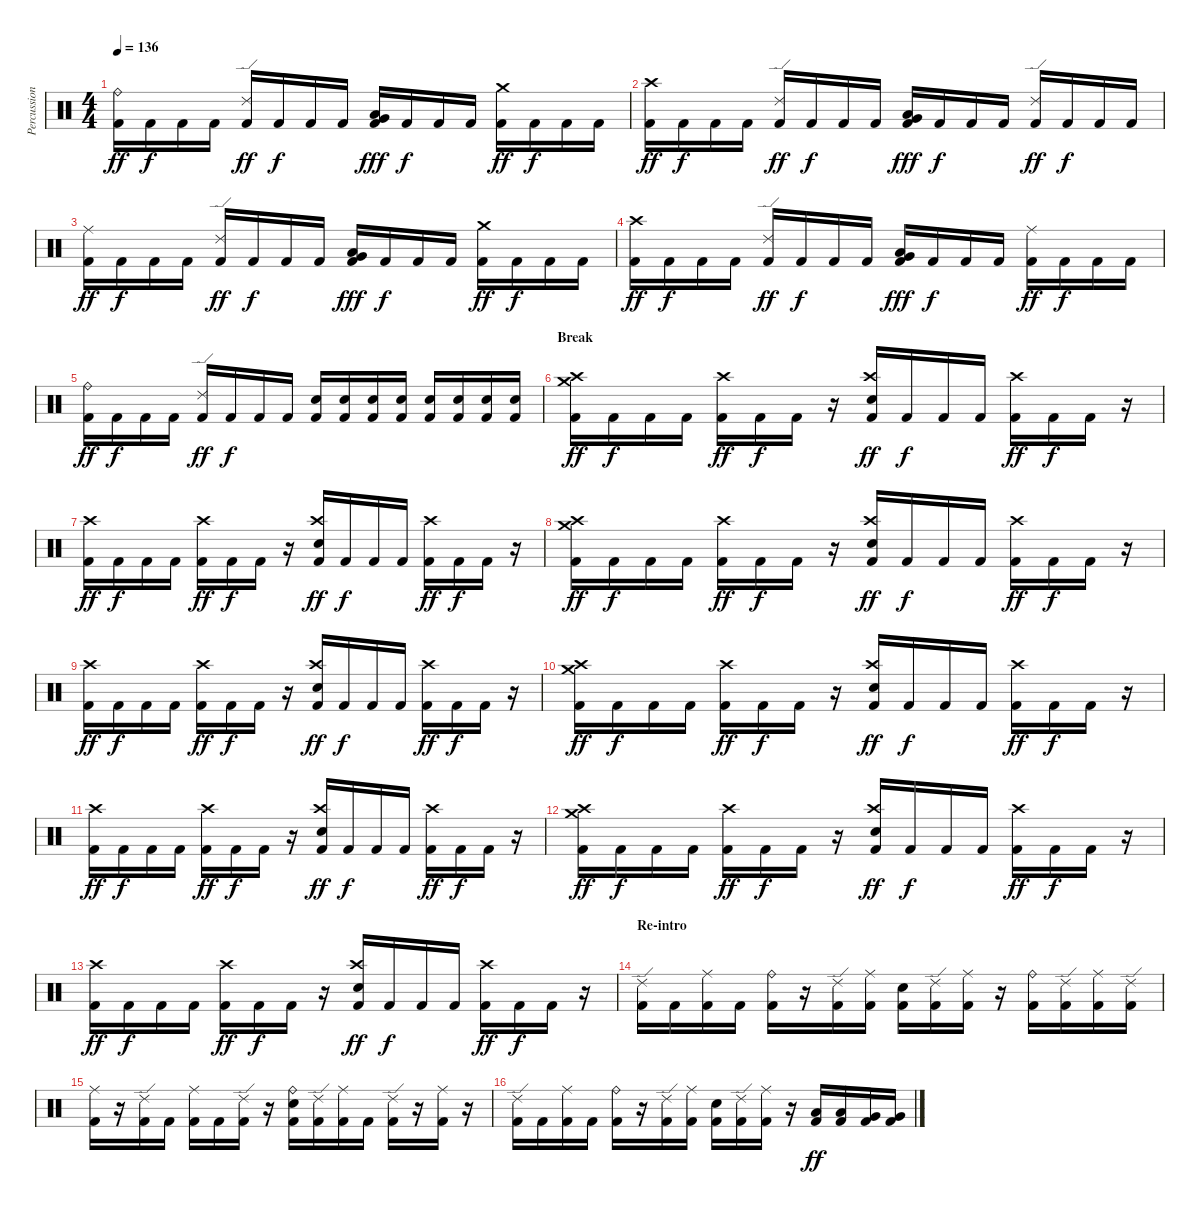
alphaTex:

\track ("Percussions" "Percussion") {instrument percussion}
\staff {score}
\articulation defaults
\ts (4 4)
\tempo 136
\clef neutral
\ks c
("Ride (bell)" "Kick (hit) 2").16{dy ff} "Kick (hit) 2".16{dy f} "Kick (hit) 2".16 "Kick (hit) 2".16 ("Ride (edge) 2" "Kick (hit) 2").16{dy ff} "Kick (hit) 2".16{dy f} "Kick (hit) 2".16 "Kick (hit) 2".16 ("Low Tom (hit)" "Very Low Tom (hit)" "Kick (hit) 2").16{dy fff} "Kick (hit) 2".16{dy f} "Kick (hit) 2".16 "Kick (hit) 2".16 ("Crash medium (hit)" "Kick (hit) 2").16{dy ff} "Kick (hit) 2".16{dy f} "Kick (hit) 2".16 "Kick (hit) 2".16 |
("Crash high (hit)" "Kick (hit) 2").16{dy ff} "Kick (hit) 2".16{dy f} "Kick (hit) 2".16 "Kick (hit) 2".16 ("Ride (edge) 2" "Kick (hit) 2").16{dy ff} "Kick (hit) 2".16{dy f} "Kick (hit) 2".16 "Kick (hit) 2".16 ("Low Tom (hit)" "Very Low Tom (hit)" "Kick (hit) 2").16{dy fff} "Kick (hit) 2".16{dy f} "Kick (hit) 2".16 "Kick (hit) 2".16 ("Ride (edge) 2" "Kick (hit) 2").16{dy ff} "Kick (hit) 2".16{dy f} "Kick (hit) 2".16 "Kick (hit) 2".16 |
("Ride (middle)" "Kick (hit) 2").16{dy ff} "Kick (hit) 2".16{dy f} "Kick (hit) 2".16 "Kick (hit) 2".16 ("Ride (edge) 2" "Kick (hit) 2").16{dy ff} "Kick (hit) 2".16{dy f} "Kick (hit) 2".16 "Kick (hit) 2".16 ("Low Tom (hit)" "Very Low Tom (hit)" "Kick (hit) 2").16{dy fff} "Kick (hit) 2".16{dy f} "Kick (hit) 2".16 "Kick (hit) 2".16 ("Crash medium (hit)" "Kick (hit) 2").16{dy ff} "Kick (hit) 2".16{dy f} "Kick (hit) 2".16 "Kick (hit) 2".16 |
("Crash high (hit)" "Kick (hit) 2").16{dy ff} "Kick (hit) 2".16{dy f} "Kick (hit) 2".16 "Kick (hit) 2".16 ("Ride (edge) 2" "Kick (hit) 2").16{dy ff} "Kick (hit) 2".16{dy f} "Kick (hit) 2".16 "Kick (hit) 2".16 ("Low Tom (hit)" "Very Low Tom (hit)" "Kick (hit) 2").16{dy fff} "Kick (hit) 2".16{dy f} "Kick (hit) 2".16 "Kick (hit) 2".16 ("Ride (middle)" "Kick (hit) 2").16{dy ff} "Kick (hit) 2".16{dy f} "Kick (hit) 2".16 "Kick (hit) 2".16 |
("Ride (bell)" "Kick (hit) 2").16{dy ff} "Kick (hit) 2".16{dy f} "Kick (hit) 2".16 "Kick (hit) 2".16 ("Ride (edge) 2" "Kick (hit) 2").16{dy ff} "Kick (hit) 2".16{dy f} "Kick (hit) 2".16 "Kick (hit) 2".16 ("Electric Snare (hit)" "Kick (hit) 2").16 ("Electric Snare (hit)" "Kick (hit) 2").16 ("Electric Snare (hit)" "Kick (hit) 2").16 ("Electric Snare (hit)" "Kick (hit) 2").16 ("Electric Snare (hit)" "Kick (hit) 2").16 ("Electric Snare (hit)" "Kick (hit) 2").16 ("Electric Snare (hit)" "Kick (hit) 2").16 ("Electric Snare (hit)" "Kick (hit) 2").16 |
\section ("" "Break")
("Crash medium (hit)" "Crash high (hit)" "Kick (hit) 2").16{dy ff} "Kick (hit) 2".16{dy f} "Kick (hit) 2".16 "Kick (hit) 2".16 ("Crash high (hit)" "Kick (hit) 2").16{dy ff} "Kick (hit) 2".16{dy f} "Kick (hit) 2".16 r.16 ("Crash high (hit)" "Electric Snare (hit)" "Kick (hit) 2").16{dy ff} "Kick (hit) 2".16{dy f} "Kick (hit) 2".16 "Kick (hit) 2".16 ("Crash high (hit)" "Kick (hit) 2").16{dy ff} "Kick (hit) 2".16{dy f} "Kick (hit) 2".16 r.16 |
("Crash high (hit)" "Kick (hit) 2").16{dy ff} "Kick (hit) 2".16{dy f} "Kick (hit) 2".16 "Kick (hit) 2".16 ("Crash high (hit)" "Kick (hit) 2").16{dy ff} "Kick (hit) 2".16{dy f} "Kick (hit) 2".16 r.16 ("Crash high (hit)" "Electric Snare (hit)" "Kick (hit) 2").16{dy ff} "Kick (hit) 2".16{dy f} "Kick (hit) 2".16 "Kick (hit) 2".16 ("Crash high (hit)" "Kick (hit) 2").16{dy ff} "Kick (hit) 2".16{dy f} "Kick (hit) 2".16 r.16 |
("Crash medium (hit)" "Crash high (hit)" "Kick (hit) 2").16{dy ff} "Kick (hit) 2".16{dy f} "Kick (hit) 2".16 "Kick (hit) 2".16 ("Crash high (hit)" "Kick (hit) 2").16{dy ff} "Kick (hit) 2".16{dy f} "Kick (hit) 2".16 r.16 ("Crash high (hit)" "Electric Snare (hit)" "Kick (hit) 2").16{dy ff} "Kick (hit) 2".16{dy f} "Kick (hit) 2".16 "Kick (hit) 2".16 ("Crash high (hit)" "Kick (hit) 2").16{dy ff} "Kick (hit) 2".16{dy f} "Kick (hit) 2".16 r.16 |
("Crash high (hit)" "Kick (hit) 2").16{dy ff} "Kick (hit) 2".16{dy f} "Kick (hit) 2".16 "Kick (hit) 2".16 ("Crash high (hit)" "Kick (hit) 2").16{dy ff} "Kick (hit) 2".16{dy f} "Kick (hit) 2".16 r.16 ("Crash high (hit)" "Electric Snare (hit)" "Kick (hit) 2").16{dy ff} "Kick (hit) 2".16{dy f} "Kick (hit) 2".16 "Kick (hit) 2".16 ("Crash high (hit)" "Kick (hit) 2").16{dy ff} "Kick (hit) 2".16{dy f} "Kick (hit) 2".16 r.16 |
("Crash medium (hit)" "Crash high (hit)" "Kick (hit) 2").16{dy ff} "Kick (hit) 2".16{dy f} "Kick (hit) 2".16 "Kick (hit) 2".16 ("Crash high (hit)" "Kick (hit) 2").16{dy ff} "Kick (hit) 2".16{dy f} "Kick (hit) 2".16 r.16 ("Crash high (hit)" "Electric Snare (hit)" "Kick (hit) 2").16{dy ff} "Kick (hit) 2".16{dy f} "Kick (hit) 2".16 "Kick (hit) 2".16 ("Crash high (hit)" "Kick (hit) 2").16{dy ff} "Kick (hit) 2".16{dy f} "Kick (hit) 2".16 r.16 |
("Crash high (hit)" "Kick (hit) 2").16{dy ff} "Kick (hit) 2".16{dy f} "Kick (hit) 2".16 "Kick (hit) 2".16 ("Crash high (hit)" "Kick (hit) 2").16{dy ff} "Kick (hit) 2".16{dy f} "Kick (hit) 2".16 r.16 ("Crash high (hit)" "Electric Snare (hit)" "Kick (hit) 2").16{dy ff} "Kick (hit) 2".16{dy f} "Kick (hit) 2".16 "Kick (hit) 2".16 ("Crash high (hit)" "Kick (hit) 2").16{dy ff} "Kick (hit) 2".16{dy f} "Kick (hit) 2".16 r.16 |
("Crash medium (hit)" "Crash high (hit)" "Kick (hit) 2").16{dy ff} "Kick (hit) 2".16{dy f} "Kick (hit) 2".16 "Kick (hit) 2".16 ("Crash high (hit)" "Kick (hit) 2").16{dy ff} "Kick (hit) 2".16{dy f} "Kick (hit) 2".16 r.16 ("Crash high (hit)" "Electric Snare (hit)" "Kick (hit) 2").16{dy ff} "Kick (hit) 2".16{dy f} "Kick (hit) 2".16 "Kick (hit) 2".16 ("Crash high (hit)" "Kick (hit) 2").16{dy ff} "Kick (hit) 2".16{dy f} "Kick (hit) 2".16 r.16 |
("Crash high (hit)" "Kick (hit) 2").16{dy ff} "Kick (hit) 2".16{dy f} "Kick (hit) 2".16 "Kick (hit) 2".16 ("Crash high (hit)" "Kick (hit) 2").16{dy ff} "Kick (hit) 2".16{dy f} "Kick (hit) 2".16 r.16 ("Crash high (hit)" "Electric Snare (hit)" "Kick (hit) 2").16{dy ff} "Kick (hit) 2".16{dy f} "Kick (hit) 2".16 "Kick (hit) 2".16 ("Crash high (hit)" "Kick (hit) 2").16{dy ff} "Kick (hit) 2".16{dy f} "Kick (hit) 2".16 r.16 |
\section ("" "Re-intro")
("Ride (edge) 2" "Kick (hit) 2").16 "Kick (hit) 2".16 ("Ride (middle)" "Kick (hit) 2").16 "Kick (hit) 2".16 ("Ride (bell)" "Kick (hit) 2").16 r.16 ("Ride (edge) 2" "Kick (hit) 2").16 ("Ride (middle)" "Kick (hit) 2").16 ("Electric Snare (hit)" "Kick (hit) 2").16 ("Ride (edge) 2" "Kick (hit) 2").16 ("Ride (middle)" "Kick (hit) 2").16 r.16 ("Ride (bell)" "Kick (hit) 2").16 ("Ride (edge) 2" "Kick (hit) 2").16 ("Ride (middle)" "Kick (hit) 2").16 ("Ride (edge) 2" "Kick (hit) 2").16 |
("Ride (middle)" "Kick (hit) 2").16 r.16 ("Ride (edge) 2" "Kick (hit) 2").16 "Kick (hit) 2".16 ("Ride (middle)" "Kick (hit) 2").16 "Kick (hit) 2".16 ("Ride (edge) 2" "Kick (hit) 2").16 r.16 ("Ride (bell)" "Electric Snare (hit)" "Kick (hit) 2").16 ("Ride (edge) 2" "Kick (hit) 2").16 ("Ride (middle)" "Kick (hit) 2").16 "Kick (hit) 2".16 ("Ride (edge) 2" "Kick (hit) 2").16 r.16 ("Ride (middle)" "Kick (hit) 2").16 r.16 |
("Ride (edge) 2" "Kick (hit) 2").16 "Kick (hit) 2".16 ("Ride (middle)" "Kick (hit) 2").16 "Kick (hit) 2".16 ("Ride (bell)" "Kick (hit) 2").16 r.16 ("Ride (edge) 2" "Kick (hit) 2").16 ("Ride (middle)" "Kick (hit) 2").16 ("Electric Snare (hit)" "Kick (hit) 2").16 ("Ride (edge) 2" "Kick (hit) 2").16 ("Ride (middle)" "Kick (hit) 2").16 r.16 ("Low Tom (hit)" "Kick (hit) 2").16{dy ff} ("Low Tom (hit)" "Kick (hit) 2").16 ("Very Low Tom (hit)" "Kick (hit) 2").16 ("Very Low Tom (hit)" "Kick (hit) 2").16
